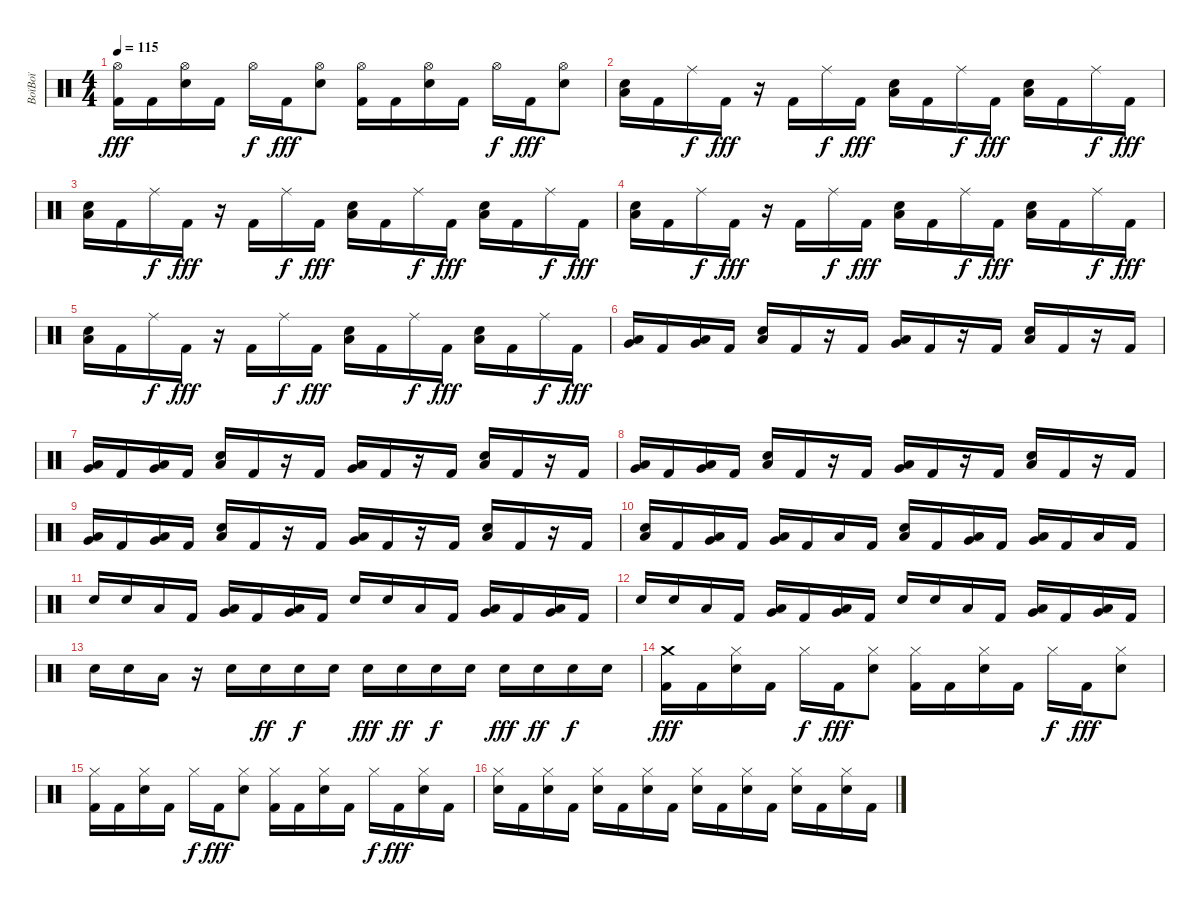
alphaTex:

\track ("BoïBoï" "BoïBoï") {instrument percussion}
\staff {score}
\articulation defaults
\ts (4 4)
\tempo 115
\clef neutral
\ks c
("Hi-Hat (open)" "Kick (hit) 2").16{dy fff} "Kick (hit) 2".16 ("Hi-Hat (open)" "Electric Snare (hit)").16 "Kick (hit) 2".16 "Hi-Hat (open)".16{dy f} "Kick (hit) 2".16{dy fff} ("Hi-Hat (open)" "Electric Snare (hit)").8 ("Hi-Hat (open)" "Kick (hit) 2").16 "Kick (hit) 2".16 ("Hi-Hat (open)" "Electric Snare (hit)").16 "Kick (hit) 2".16 "Hi-Hat (open)".16{dy f} "Kick (hit) 2".16{dy fff} ("Hi-Hat (open)" "Electric Snare (hit)").8 |
("Electric Snare (hit)" "Low Floor Tom (hit)").16 "Kick (hit) 2".16 "Ride (middle)".16{dy f} "Kick (hit) 2".16{dy fff} r.16 "Kick (hit) 2".16 "Ride (middle)".16{dy f} "Kick (hit) 2".16{dy fff} ("Electric Snare (hit)" "Low Floor Tom (hit)").16 "Kick (hit) 2".16 "Ride (middle)".16{dy f} "Kick (hit) 2".16{dy fff} ("Electric Snare (hit)" "Low Floor Tom (hit)").16 "Kick (hit) 2".16 "Ride (middle)".16{dy f} "Kick (hit) 2".16{dy fff} |
("Electric Snare (hit)" "Low Floor Tom (hit)").16 "Kick (hit) 2".16 "Ride (middle)".16{dy f} "Kick (hit) 2".16{dy fff} r.16 "Kick (hit) 2".16 "Ride (middle)".16{dy f} "Kick (hit) 2".16{dy fff} ("Electric Snare (hit)" "Low Floor Tom (hit)").16 "Kick (hit) 2".16 "Ride (middle)".16{dy f} "Kick (hit) 2".16{dy fff} ("Electric Snare (hit)" "Low Floor Tom (hit)").16 "Kick (hit) 2".16 "Ride (middle)".16{dy f} "Kick (hit) 2".16{dy fff} |
("Electric Snare (hit)" "Low Floor Tom (hit)").16 "Kick (hit) 2".16 "Ride (middle)".16{dy f} "Kick (hit) 2".16{dy fff} r.16 "Kick (hit) 2".16 "Ride (middle)".16{dy f} "Kick (hit) 2".16{dy fff} ("Electric Snare (hit)" "Low Floor Tom (hit)").16 "Kick (hit) 2".16 "Ride (middle)".16{dy f} "Kick (hit) 2".16{dy fff} ("Electric Snare (hit)" "Low Floor Tom (hit)").16 "Kick (hit) 2".16 "Ride (middle)".16{dy f} "Kick (hit) 2".16{dy fff} |
("Electric Snare (hit)" "Low Floor Tom (hit)").16 "Kick (hit) 2".16 "Ride (middle)".16{dy f} "Kick (hit) 2".16{dy fff} r.16 "Kick (hit) 2".16 "Ride (middle)".16{dy f} "Kick (hit) 2".16{dy fff} ("Electric Snare (hit)" "Low Floor Tom (hit)").16 "Kick (hit) 2".16 "Ride (middle)".16{dy f} "Kick (hit) 2".16{dy fff} ("Electric Snare (hit)" "Low Floor Tom (hit)").16 "Kick (hit) 2".16 "Ride (middle)".16{dy f} "Kick (hit) 2".16{dy fff} |
("Low Tom (hit)" "Very Low Tom (hit)").16 "Kick (hit) 2".16 ("Very Low Tom (hit)" "Low Floor Tom (hit)").16 "Kick (hit) 2".16 ("Electric Snare (hit)" "Low Floor Tom (hit)").16 "Kick (hit) 2".16 r.16 "Kick (hit) 2".16 ("Very Low Tom (hit)" "Low Floor Tom (hit)").16 "Kick (hit) 2".16 r.16 "Kick (hit) 2".16 ("Electric Snare (hit)" "Low Floor Tom (hit)").16 "Kick (hit) 2".16 r.16 "Kick (hit) 2".16 |
("Low Tom (hit)" "Very Low Tom (hit)").16 "Kick (hit) 2".16 ("Very Low Tom (hit)" "Low Floor Tom (hit)").16 "Kick (hit) 2".16 ("Electric Snare (hit)" "Low Floor Tom (hit)").16 "Kick (hit) 2".16 r.16 "Kick (hit) 2".16 ("Very Low Tom (hit)" "Low Floor Tom (hit)").16 "Kick (hit) 2".16 r.16 "Kick (hit) 2".16 ("Electric Snare (hit)" "Low Floor Tom (hit)").16 "Kick (hit) 2".16 r.16 "Kick (hit) 2".16 |
("Low Tom (hit)" "Very Low Tom (hit)").16 "Kick (hit) 2".16 ("Very Low Tom (hit)" "Low Floor Tom (hit)").16 "Kick (hit) 2".16 ("Electric Snare (hit)" "Low Floor Tom (hit)").16 "Kick (hit) 2".16 r.16 "Kick (hit) 2".16 ("Very Low Tom (hit)" "Low Floor Tom (hit)").16 "Kick (hit) 2".16 r.16 "Kick (hit) 2".16 ("Electric Snare (hit)" "Low Floor Tom (hit)").16 "Kick (hit) 2".16 r.16 "Kick (hit) 2".16 |
("Low Tom (hit)" "Very Low Tom (hit)").16 "Kick (hit) 2".16 ("Very Low Tom (hit)" "Low Floor Tom (hit)").16 "Kick (hit) 2".16 ("Electric Snare (hit)" "Low Floor Tom (hit)").16 "Kick (hit) 2".16 r.16 "Kick (hit) 2".16 ("Very Low Tom (hit)" "Low Floor Tom (hit)").16 "Kick (hit) 2".16 r.16 "Kick (hit) 2".16 ("Electric Snare (hit)" "Low Floor Tom (hit)").16 "Kick (hit) 2".16 r.16 "Kick (hit) 2".16 |
("Electric Snare (hit)" "Low Floor Tom (hit)").16 "Kick (hit) 2".16 ("Low Tom (hit)" "Very Low Tom (hit)").16 "Kick (hit) 2".16 ("Very Low Tom (hit)" "Low Floor Tom (hit)").16 "Kick (hit) 2".16 "Low Floor Tom (hit)".16 "Kick (hit) 2".16 ("Electric Snare (hit)" "Low Floor Tom (hit)").16 "Kick (hit) 2".16 ("Low Tom (hit)" "Very Low Tom (hit)").16 "Kick (hit) 2".16 ("Very Low Tom (hit)" "Low Floor Tom (hit)").16 "Kick (hit) 2".16 "Low Floor Tom (hit)".16 "Kick (hit) 2".16 |
"Electric Snare (hit)".16 "Electric Snare (hit)".16 "Low Tom (hit)".16 "Kick (hit) 2".16 ("Low Tom (hit)" "Very Low Tom (hit)").16 "Kick (hit) 2".16 ("Very Low Tom (hit)" "Low Floor Tom (hit)").16 "Kick (hit) 2".16 "Electric Snare (hit)".16 "Electric Snare (hit)".16 "Low Tom (hit)".16 "Kick (hit) 2".16 ("Low Tom (hit)" "Very Low Tom (hit)").16 "Kick (hit) 2".16 ("Very Low Tom (hit)" "Low Floor Tom (hit)").16 "Kick (hit) 2".16 |
"Electric Snare (hit)".16 "Electric Snare (hit)".16 "Low Tom (hit)".16 "Kick (hit) 2".16 ("Low Tom (hit)" "Very Low Tom (hit)").16 "Kick (hit) 2".16 ("Very Low Tom (hit)" "Low Floor Tom (hit)").16 "Kick (hit) 2".16 "Electric Snare (hit)".16 "Electric Snare (hit)".16 "Low Tom (hit)".16 "Kick (hit) 2".16 ("Low Tom (hit)" "Very Low Tom (hit)").16 "Kick (hit) 2".16 ("Very Low Tom (hit)" "Low Floor Tom (hit)").16 "Kick (hit) 2".16 |
"Electric Snare (hit)".16 "Electric Snare (hit)".16 "Low Tom (hit)".16 r.16 "Electric Snare (hit)".16 "Electric Snare (hit)".16{dy ff} "Electric Snare (hit)".16{dy f} "Electric Snare (hit)".16 "Electric Snare (hit)".16{dy fff} "Electric Snare (hit)".16{dy ff} "Electric Snare (hit)".16{dy f} "Electric Snare (hit)".16 "Electric Snare (hit)".16{dy fff} "Electric Snare (hit)".16{dy ff} "Electric Snare (hit)".16{dy f} "Electric Snare (hit)".16 |
("Crash medium (hit)" "Kick (hit) 2").16{dy fff} "Kick (hit) 2".16 ("Hi-Hat (closed)" "Electric Snare (hit)").16 "Kick (hit) 2".16 "Hi-Hat (closed)".16{dy f} "Kick (hit) 2".16{dy fff} ("Hi-Hat (closed)" "Electric Snare (hit)").8 ("Hi-Hat (closed)" "Kick (hit) 2").16 "Kick (hit) 2".16 ("Hi-Hat (closed)" "Electric Snare (hit)").16 "Kick (hit) 2".16 "Hi-Hat (closed)".16{dy f} "Kick (hit) 2".16{dy fff} ("Hi-Hat (closed)" "Electric Snare (hit)").8 |
("Hi-Hat (closed)" "Kick (hit) 2").16 "Kick (hit) 2".16 ("Hi-Hat (closed)" "Electric Snare (hit)").16 "Kick (hit) 2".16 "Hi-Hat (closed)".16{dy f} "Kick (hit) 2".16{dy fff} ("Hi-Hat (closed)" "Electric Snare (hit)").8 ("Hi-Hat (closed)" "Kick (hit) 2").16 "Kick (hit) 2".16 ("Hi-Hat (closed)" "Electric Snare (hit)").16 "Kick (hit) 2".16 "Hi-Hat (closed)".16{dy f} "Kick (hit) 2".16{dy fff} ("Hi-Hat (closed)" "Electric Snare (hit)").16 "Kick (hit) 2".16 |
("Hi-Hat (closed)" "Electric Snare (hit)").16 "Kick (hit) 2".16 ("Hi-Hat (closed)" "Electric Snare (hit)").16 "Kick (hit) 2".16 ("Hi-Hat (closed)" "Electric Snare (hit)").16 "Kick (hit) 2".16 ("Hi-Hat (closed)" "Electric Snare (hit)").16 "Kick (hit) 2".16 ("Hi-Hat (closed)" "Electric Snare (hit)").16 "Kick (hit) 2".16 ("Hi-Hat (closed)" "Electric Snare (hit)").16 "Kick (hit) 2".16 ("Hi-Hat (closed)" "Electric Snare (hit)").16 "Kick (hit) 2".16 ("Hi-Hat (closed)" "Electric Snare (hit)").16 "Kick (hit) 2".16
